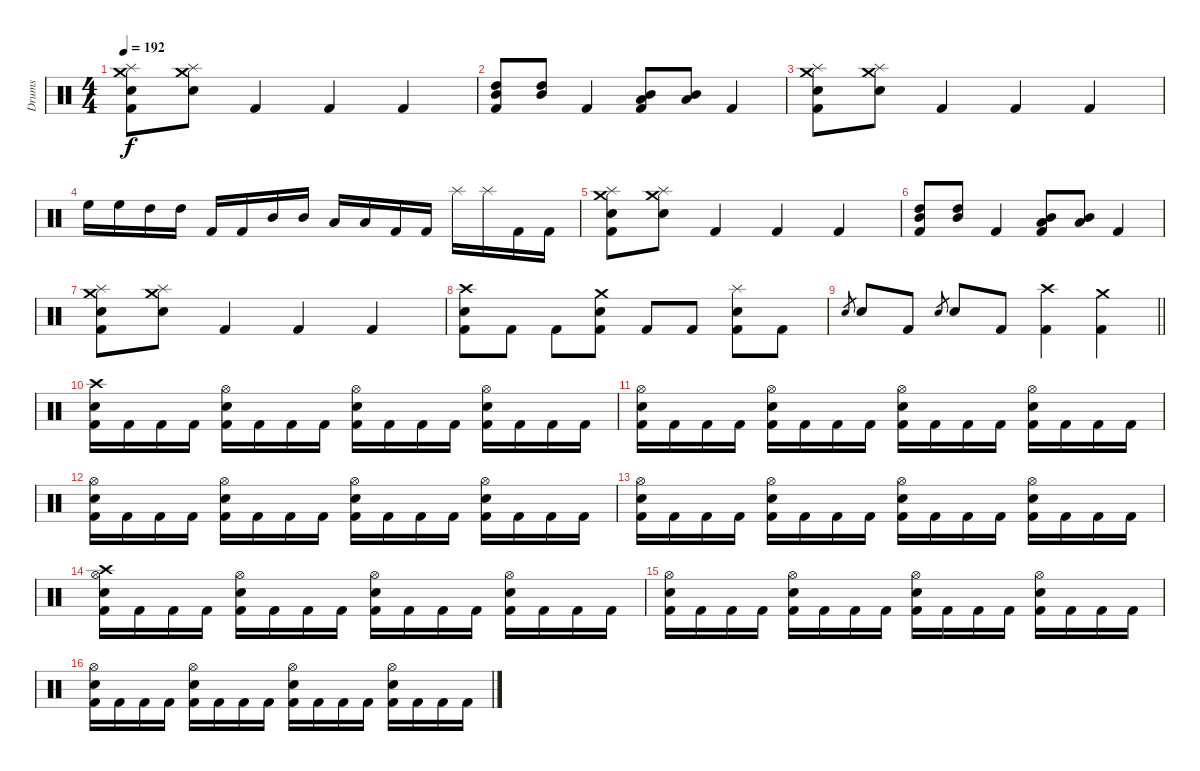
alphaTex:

\track ("Drums" "Drums") {instrument percussion}
\staff {score}
\articulation defaults
\ts (4 4)
\tempo 192
\clef neutral
\ks c
("Crash medium (hit)" "Splash (hit)" "Electric Snare (hit)" "Kick (hit) 2").8{dy f} ("Crash medium (hit)" "Splash (hit)" "Electric Snare (hit)").8 "Kick (hit) 2".4 "Kick (hit) 2".4 "Kick (hit) 2".4 |
("High Tom (hit)" "Mid Tom (hit)" "Kick (hit) 2").8 ("High Tom (hit)" "Mid Tom (hit)").8 "Kick (hit) 2".4 ("Mid Tom (hit)" "Low Tom (hit)" "Kick (hit) 2").8 ("Mid Tom (hit)" "Low Tom (hit)").8 "Kick (hit) 2".4 |
("Crash medium (hit)" "Splash (hit)" "Electric Snare (hit)" "Kick (hit) 2").8 ("Crash medium (hit)" "Splash (hit)" "Electric Snare (hit)").8 "Kick (hit) 2".4 "Kick (hit) 2".4 "Kick (hit) 2".4 |
"High Floor Tom (hit)".16 "High Floor Tom (hit)".16 "High Tom (hit)".16 "High Tom (hit)".16 "Kick (hit) 2".16 "Kick (hit) 2".16 "Mid Tom (hit)".16 "Mid Tom (hit)".16 "Low Tom (hit)".16 "Low Tom (hit)".16 "Kick (hit) 2".16 "Kick (hit) 2".16 "Splash (hit)".16 "Splash (hit)".16 "Kick (hit) 2".16 "Kick (hit) 2".16 |
("Crash medium (hit)" "Splash (hit)" "Electric Snare (hit)" "Kick (hit) 2").8 ("Crash medium (hit)" "Splash (hit)" "Electric Snare (hit)").8 "Kick (hit) 2".4 "Kick (hit) 2".4 "Kick (hit) 2".4 |
("High Tom (hit)" "Mid Tom (hit)" "Kick (hit) 2").8 ("High Tom (hit)" "Mid Tom (hit)").8 "Kick (hit) 2".4 ("Mid Tom (hit)" "Low Tom (hit)" "Kick (hit) 2").8 ("Mid Tom (hit)" "Low Tom (hit)").8 "Kick (hit) 2".4 |
("Crash medium (hit)" "Splash (hit)" "Electric Snare (hit)" "Kick (hit) 2").8 ("Crash medium (hit)" "Splash (hit)" "Electric Snare (hit)").8 "Kick (hit) 2".4 "Kick (hit) 2".4 "Kick (hit) 2".4 |
("Crash high (hit)" "Electric Snare (hit)" "Kick (hit) 2").8 "Kick (hit) 2".8 "Kick (hit) 2".8 ("Crash medium (hit)" "Electric Snare (hit)" "Kick (hit) 2").8 "Kick (hit) 2".8 "Kick (hit) 2".8 ("Splash (hit)" "Electric Snare (hit)" "Kick (hit) 2").8 "Kick (hit) 2".8 |
\barLineRight lightlight "Electric Snare (hit)".8{gr} "Electric Snare (hit)".8 "Kick (hit) 2".8 "Electric Snare (hit)".8{gr} "Electric Snare (hit)".8 "Kick (hit) 2".8
("Crash high (hit)" "Kick (hit) 2").4 ("Crash medium (hit)" "Kick (hit) 2").4 |
("Crash high (hit)" "Electric Snare (hit)" "Kick (hit) 2").16 "Kick (hit) 2".16 "Kick (hit) 2".16 "Kick (hit) 2".16 ("Hi-Hat (open)" "Electric Snare (hit)" "Kick (hit) 2").16 "Kick (hit) 2".16 "Kick (hit) 2".16 "Kick (hit) 2".16 ("Hi-Hat (open)" "Electric Snare (hit)" "Kick (hit) 2").16 "Kick (hit) 2".16 "Kick (hit) 2".16 "Kick (hit) 2".16 ("Hi-Hat (open)" "Electric Snare (hit)" "Kick (hit) 2").16 "Kick (hit) 2".16 "Kick (hit) 2".16 "Kick (hit) 2".16 |
("Hi-Hat (open)" "Electric Snare (hit)" "Kick (hit) 2").16 "Kick (hit) 2".16 "Kick (hit) 2".16 "Kick (hit) 2".16 ("Hi-Hat (open)" "Electric Snare (hit)" "Kick (hit) 2").16 "Kick (hit) 2".16 "Kick (hit) 2".16 "Kick (hit) 2".16 ("Hi-Hat (open)" "Electric Snare (hit)" "Kick (hit) 2").16 "Kick (hit) 2".16 "Kick (hit) 2".16 "Kick (hit) 2".16 ("Hi-Hat (open)" "Electric Snare (hit)" "Kick (hit) 2").16 "Kick (hit) 2".16 "Kick (hit) 2".16 "Kick (hit) 2".16 |
("Hi-Hat (open)" "Electric Snare (hit)" "Kick (hit) 2").16 "Kick (hit) 2".16 "Kick (hit) 2".16 "Kick (hit) 2".16 ("Hi-Hat (open)" "Electric Snare (hit)" "Kick (hit) 2").16 "Kick (hit) 2".16 "Kick (hit) 2".16 "Kick (hit) 2".16 ("Hi-Hat (open)" "Electric Snare (hit)" "Kick (hit) 2").16 "Kick (hit) 2".16 "Kick (hit) 2".16 "Kick (hit) 2".16 ("Hi-Hat (open)" "Electric Snare (hit)" "Kick (hit) 2").16 "Kick (hit) 2".16 "Kick (hit) 2".16 "Kick (hit) 2".16 |
("Hi-Hat (open)" "Electric Snare (hit)" "Kick (hit) 2").16 "Kick (hit) 2".16 "Kick (hit) 2".16 "Kick (hit) 2".16 ("Hi-Hat (open)" "Electric Snare (hit)" "Kick (hit) 2").16 "Kick (hit) 2".16 "Kick (hit) 2".16 "Kick (hit) 2".16 ("Hi-Hat (open)" "Electric Snare (hit)" "Kick (hit) 2").16 "Kick (hit) 2".16 "Kick (hit) 2".16 "Kick (hit) 2".16 ("Hi-Hat (open)" "Electric Snare (hit)" "Kick (hit) 2").16 "Kick (hit) 2".16 "Kick (hit) 2".16 "Kick (hit) 2".16 |
("Crash high (hit)" "Hi-Hat (open)" "Electric Snare (hit)" "Kick (hit) 2").16 "Kick (hit) 2".16 "Kick (hit) 2".16 "Kick (hit) 2".16 ("Hi-Hat (open)" "Electric Snare (hit)" "Kick (hit) 2").16 "Kick (hit) 2".16 "Kick (hit) 2".16 "Kick (hit) 2".16 ("Hi-Hat (open)" "Electric Snare (hit)" "Kick (hit) 2").16 "Kick (hit) 2".16 "Kick (hit) 2".16 "Kick (hit) 2".16 ("Hi-Hat (open)" "Electric Snare (hit)" "Kick (hit) 2").16 "Kick (hit) 2".16 "Kick (hit) 2".16 "Kick (hit) 2".16 |
("Hi-Hat (open)" "Electric Snare (hit)" "Kick (hit) 2").16 "Kick (hit) 2".16 "Kick (hit) 2".16 "Kick (hit) 2".16 ("Hi-Hat (open)" "Electric Snare (hit)" "Kick (hit) 2").16 "Kick (hit) 2".16 "Kick (hit) 2".16 "Kick (hit) 2".16 ("Hi-Hat (open)" "Electric Snare (hit)" "Kick (hit) 2").16 "Kick (hit) 2".16 "Kick (hit) 2".16 "Kick (hit) 2".16 ("Hi-Hat (open)" "Electric Snare (hit)" "Kick (hit) 2").16 "Kick (hit) 2".16 "Kick (hit) 2".16 "Kick (hit) 2".16 |
("Hi-Hat (open)" "Electric Snare (hit)" "Kick (hit) 2").16 "Kick (hit) 2".16 "Kick (hit) 2".16 "Kick (hit) 2".16 ("Hi-Hat (open)" "Electric Snare (hit)" "Kick (hit) 2").16 "Kick (hit) 2".16 "Kick (hit) 2".16 "Kick (hit) 2".16 ("Hi-Hat (open)" "Electric Snare (hit)" "Kick (hit) 2").16 "Kick (hit) 2".16 "Kick (hit) 2".16 "Kick (hit) 2".16 ("Hi-Hat (open)" "Electric Snare (hit)" "Kick (hit) 2").16 "Kick (hit) 2".16 "Kick (hit) 2".16 "Kick (hit) 2".16
